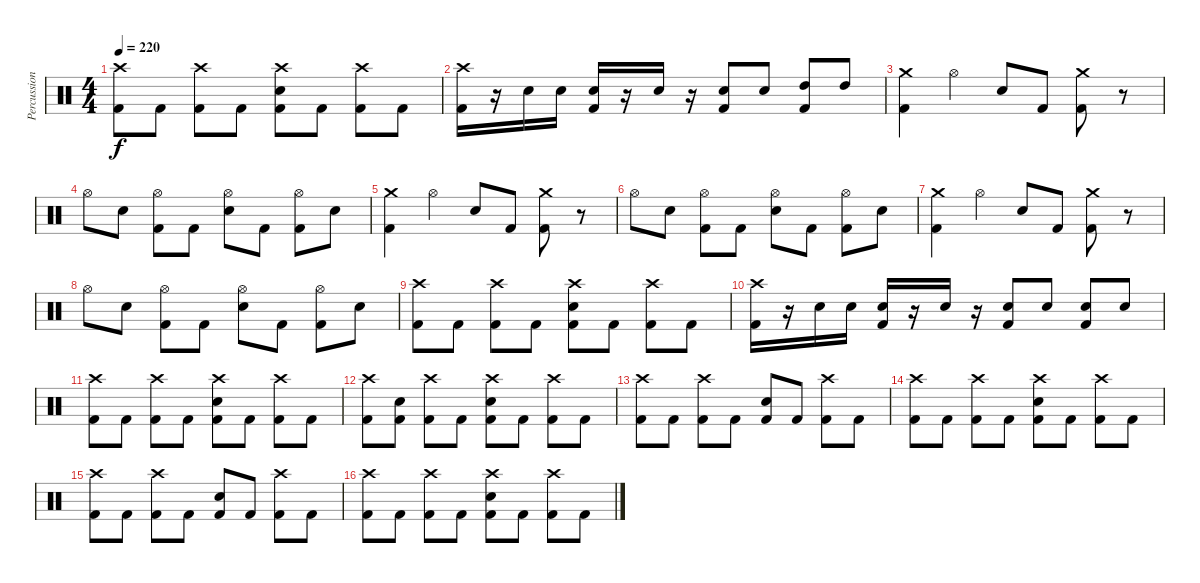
\track ("Percussion (Dan Wilding)" "Percussion") {instrument percussion}
\staff {score}
\articulation defaults
\ts (4 4)
\tempo 220
\clef neutral
\ks c
("Crash high (hit)" "Kick (hit) 2").8{dy f} "Kick (hit) 2".8 ("Crash high (hit)" "Kick (hit) 2").8 "Kick (hit) 2".8 ("Crash high (hit)" "Electric Snare (hit)" "Kick (hit) 2").8 "Kick (hit) 2".8 ("Crash high (hit)" "Kick (hit) 2").8 "Kick (hit) 2".8 |
("Crash high (hit)" "Kick (hit) 2").16 r.16 "Electric Snare (hit)".16 "Electric Snare (hit)".16 ("Electric Snare (hit)" "Kick (hit) 2").16 r.16 "Electric Snare (hit)".16 r.16 ("Electric Snare (hit)" "Kick (hit) 2").8 "Electric Snare (hit)".8 ("High Tom (hit)" "Kick (hit) 2").8 "High Tom (hit)".8 |
("Crash medium (hit)" "Kick (hit) 2").4 "Hi-Hat (open)".4 "Electric Snare (hit)".8 "Kick (hit) 2".8 ("Crash medium (hit)" "Kick (hit) 2").8 r.8 |
"Hi-Hat (open)".8 "Electric Snare (hit)".8 ("Hi-Hat (open)" "Kick (hit) 2").8 "Kick (hit) 2".8 ("Hi-Hat (open)" "Electric Snare (hit)").8 "Kick (hit) 2".8 ("Hi-Hat (open)" "Kick (hit) 2").8 "Electric Snare (hit)".8 |
("Crash medium (hit)" "Kick (hit) 2").4 "Hi-Hat (open)".4 "Electric Snare (hit)".8 "Kick (hit) 2".8 ("Crash medium (hit)" "Kick (hit) 2").8 r.8 |
"Hi-Hat (open)".8 "Electric Snare (hit)".8 ("Hi-Hat (open)" "Kick (hit) 2").8 "Kick (hit) 2".8 ("Hi-Hat (open)" "Electric Snare (hit)").8 "Kick (hit) 2".8 ("Hi-Hat (open)" "Kick (hit) 2").8 "Electric Snare (hit)".8 |
("Crash medium (hit)" "Kick (hit) 2").4 "Hi-Hat (open)".4 "Electric Snare (hit)".8 "Kick (hit) 2".8 ("Crash medium (hit)" "Kick (hit) 2").8 r.8 |
"Hi-Hat (open)".8 "Electric Snare (hit)".8 ("Hi-Hat (open)" "Kick (hit) 2").8 "Kick (hit) 2".8 ("Hi-Hat (open)" "Electric Snare (hit)").8 "Kick (hit) 2".8 ("Hi-Hat (open)" "Kick (hit) 2").8 "Electric Snare (hit)".8 |
("Crash high (hit)" "Kick (hit) 2").8 "Kick (hit) 2".8 ("Crash high (hit)" "Kick (hit) 2").8 "Kick (hit) 2".8 ("Crash high (hit)" "Electric Snare (hit)" "Kick (hit) 2").8 "Kick (hit) 2".8 ("Crash high (hit)" "Kick (hit) 2").8 "Kick (hit) 2".8 |
("Crash high (hit)" "Kick (hit) 2").16 r.16 "Electric Snare (hit)".16 "Electric Snare (hit)".16 ("Electric Snare (hit)" "Kick (hit) 2").16 r.16 "Electric Snare (hit)".16 r.16 ("Electric Snare (hit)" "Kick (hit) 2").8 "Electric Snare (hit)".8 ("Electric Snare (hit)" "Kick (hit) 2").8 "Electric Snare (hit)".8 |
("Crash high (hit)" "Kick (hit) 2").8 "Kick (hit) 2".8 ("Crash high (hit)" "Kick (hit) 2").8 "Kick (hit) 2".8 ("Crash high (hit)" "Electric Snare (hit)" "Kick (hit) 2").8 "Kick (hit) 2".8 ("Crash high (hit)" "Kick (hit) 2").8 "Kick (hit) 2".8 |
("Crash high (hit)" "Kick (hit) 2").8 ("Electric Snare (hit)" "Kick (hit) 2").8 ("Crash high (hit)" "Kick (hit) 2").8 "Kick (hit) 2".8 ("Crash high (hit)" "Electric Snare (hit)" "Kick (hit) 2").8 "Kick (hit) 2".8 ("Crash high (hit)" "Kick (hit) 2").8 "Kick (hit) 2".8 |
("Crash high (hit)" "Kick (hit) 2").8 "Kick (hit) 2".8 ("Crash high (hit)" "Kick (hit) 2").8 "Kick (hit) 2".8 ("Electric Snare (hit)" "Kick (hit) 2").8 "Kick (hit) 2".8 ("Crash high (hit)" "Kick (hit) 2").8 "Kick (hit) 2".8 |
("Crash high (hit)" "Kick (hit) 2").8 "Kick (hit) 2".8 ("Crash high (hit)" "Kick (hit) 2").8 "Kick (hit) 2".8 ("Crash high (hit)" "Electric Snare (hit)" "Kick (hit) 2").8 "Kick (hit) 2".8 ("Crash high (hit)" "Kick (hit) 2").8 "Kick (hit) 2".8 |
("Crash high (hit)" "Kick (hit) 2").8 "Kick (hit) 2".8 ("Crash high (hit)" "Kick (hit) 2").8 "Kick (hit) 2".8 ("Electric Snare (hit)" "Kick (hit) 2").8 "Kick (hit) 2".8 ("Crash high (hit)" "Kick (hit) 2").8 "Kick (hit) 2".8 |
("Crash high (hit)" "Kick (hit) 2").8 "Kick (hit) 2".8 ("Crash high (hit)" "Kick (hit) 2").8 "Kick (hit) 2".8 ("Crash high (hit)" "Electric Snare (hit)" "Kick (hit) 2").8 "Kick (hit) 2".8 ("Crash high (hit)" "Kick (hit) 2").8 "Kick (hit) 2".8
